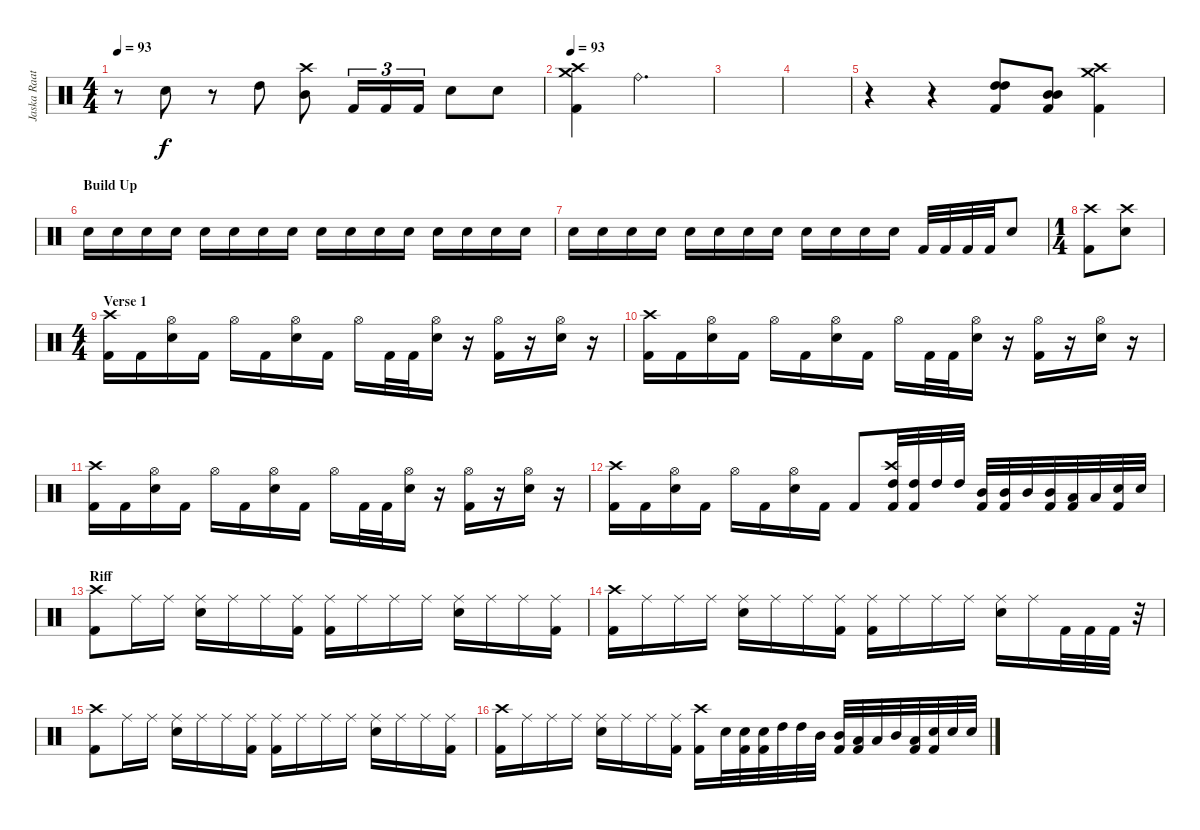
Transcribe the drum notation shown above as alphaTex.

\track ("Jaska Raatikainen" "Jaska Raat") {instrument percussion}
\staff {score}
\articulation defaults
\ts (4 4)
\tempo 93
\clef neutral
\ks c
r.8{dy f} "Snare (hit) 2".8 r.8 "High Tom (hit)".8 ("Crash high (hit)" "Mid Tom (hit)").8 "Kick (hit) 2".16{tu (3 2)} "Kick (hit) 2".16{tu (3 2)} "Kick (hit) 2".16{tu (3 2)} "Snare (hit) 2".8 "Snare (hit) 2".8 |
\tempo 93
("Crash high (hit)" "Crash medium (hit)" "Kick (hit) 2").4 "Ride (bell)".2{d} |
|
|
r.4 r.4 ("High Tom (hit)" "High Tom (hit)" "Kick (hit) 2").8 ("Mid Tom (hit)" "Mid Tom (hit)" "Kick (hit) 2").8 ("Crash high (hit)" "Crash medium (hit)" "Kick (hit) 2").4 |
\section ("" "Build Up")
"Snare (hit) 2".16{volume 0} "Snare (hit) 2".16 "Snare (hit) 2".16{volume 2} "Snare (hit) 2".16 "Snare (hit) 2".16{volume 4} "Snare (hit) 2".16 "Snare (hit) 2".16{volume 6} "Snare (hit) 2".16 "Snare (hit) 2".16{volume 8} "Snare (hit) 2".16 "Snare (hit) 2".16{volume 10} "Snare (hit) 2".16 "Snare (hit) 2".16{volume 11} "Snare (hit) 2".16 "Snare (hit) 2".16{volume 13} "Snare (hit) 2".16 |
"Snare (hit) 2".16{volume 14} "Snare (hit) 2".16 "Snare (hit) 2".16{volume 16} "Snare (hit) 2".16 "Snare (hit) 2".16 "Snare (hit) 2".16 "Snare (hit) 2".16 "Snare (hit) 2".16 "Snare (hit) 2".16 "Snare (hit) 2".16 "Snare (hit) 2".16 "Snare (hit) 2".16 "Kick (hit) 2".32 "Kick (hit) 2".32 "Kick (hit) 2".32 "Kick (hit) 2".32 "Snare (hit) 2".8 |
\ts (1 4)
("Crash high (hit)" "Kick (hit) 2").8 ("Crash high (hit)" "Snare (hit) 2").8 |
\ts (4 4)
\section ("" "Verse 1")
("Crash high (hit)" "Kick (hit) 2").16 "Kick (hit) 2".16 ("Hi-Hat (open)" "Snare (hit) 2").16 "Kick (hit) 2".16 "Hi-Hat (open)".16 "Kick (hit) 2".16 ("Hi-Hat (open)" "Snare (hit) 2").16 "Kick (hit) 2".16 "Hi-Hat (open)".16 "Kick (hit) 2".32 "Kick (hit) 2".32 ("Hi-Hat (open)" "Snare (hit) 2").16 r.16 ("Hi-Hat (open)" "Kick (hit) 2").16 r.16 ("Hi-Hat (open)" "Snare (hit) 2").16 r.16 |
("Crash high (hit)" "Kick (hit) 2").16 "Kick (hit) 2".16 ("Hi-Hat (open)" "Snare (hit) 2").16 "Kick (hit) 2".16 "Hi-Hat (open)".16 "Kick (hit) 2".16 ("Hi-Hat (open)" "Snare (hit) 2").16 "Kick (hit) 2".16 "Hi-Hat (open)".16 "Kick (hit) 2".32 "Kick (hit) 2".32 ("Hi-Hat (open)" "Snare (hit) 2").16 r.16 ("Hi-Hat (open)" "Kick (hit) 2").16 r.16 ("Hi-Hat (open)" "Snare (hit) 2").16 r.16 |
("Crash high (hit)" "Kick (hit) 2").16 "Kick (hit) 2".16 ("Hi-Hat (open)" "Snare (hit) 2").16 "Kick (hit) 2".16 "Hi-Hat (open)".16 "Kick (hit) 2".16 ("Hi-Hat (open)" "Snare (hit) 2").16 "Kick (hit) 2".16 "Hi-Hat (open)".16 "Kick (hit) 2".32 "Kick (hit) 2".32 ("Hi-Hat (open)" "Snare (hit) 2").16 r.16 ("Hi-Hat (open)" "Kick (hit) 2").16 r.16 ("Hi-Hat (open)" "Snare (hit) 2").16 r.16 |
("Crash high (hit)" "Kick (hit) 2").16 "Kick (hit) 2".16 ("Hi-Hat (open)" "Snare (hit) 2").16 "Kick (hit) 2".16 "Hi-Hat (open)".16 "Kick (hit) 2".16 ("Hi-Hat (open)" "Snare (hit) 2").16 "Kick (hit) 2".16 "Kick (hit) 2".8 ("Crash high (hit)" "High Tom (hit)" "Kick (hit) 2").32 ("High Tom (hit)" "Kick (hit) 2").32 "High Tom (hit)".32 "High Tom (hit)".32 ("Mid Tom (hit)" "Kick (hit) 2").32 ("Mid Tom (hit)" "Kick (hit) 2").32 "Mid Tom (hit)".32 ("Mid Tom (hit)" "Kick (hit) 2").32 ("Low Tom (hit)" "Kick (hit) 2").32 "Low Tom (hit)".32 ("Snare (hit) 2" "Kick (hit) 2").32 "Snare (hit) 2".32 |
\section ("" "Riff")
("Crash high (hit)" "Kick (hit) 2").8 "Ride (middle)".16 "Ride (middle)".16 ("Ride (middle)" "Snare (hit) 2").16 "Ride (middle)".16 "Ride (middle)".16 ("Ride (middle)" "Kick (hit) 2").16 ("Ride (middle)" "Kick (hit) 2").16 "Ride (middle)".16 "Ride (middle)".16 "Ride (middle)".16 ("Ride (middle)" "Snare (hit) 2").16 "Ride (middle)".16 "Ride (middle)".16 ("Ride (middle)" "Kick (hit) 2").16 |
("Crash high (hit)" "Kick (hit) 2").16 "Ride (middle)".16 "Ride (middle)".16 "Ride (middle)".16 ("Ride (middle)" "Snare (hit) 2").16 "Ride (middle)".16 "Ride (middle)".16 ("Ride (middle)" "Kick (hit) 2").16 ("Ride (middle)" "Kick (hit) 2").16 "Ride (middle)".16 "Ride (middle)".16 "Ride (middle)".16 ("Ride (middle)" "Snare (hit) 2").16 "Ride (middle)".16 "Kick (hit) 2".32 "Kick (hit) 2".32 "Kick (hit) 2".32 r.32 |
("Crash high (hit)" "Kick (hit) 2").8 "Ride (middle)".16 "Ride (middle)".16 ("Ride (middle)" "Snare (hit) 2").16 "Ride (middle)".16 "Ride (middle)".16 ("Ride (middle)" "Kick (hit) 2").16 ("Ride (middle)" "Kick (hit) 2").16 "Ride (middle)".16 "Ride (middle)".16 "Ride (middle)".16 ("Ride (middle)" "Snare (hit) 2").16 "Ride (middle)".16 "Ride (middle)".16 ("Ride (middle)" "Kick (hit) 2").16 |
("Crash high (hit)" "Kick (hit) 2").16 "Ride (middle)".16 "Ride (middle)".16 "Ride (middle)".16 ("Ride (middle)" "Snare (hit) 2").16 "Ride (middle)".16 "Ride (middle)".16 ("Ride (middle)" "Kick (hit) 2").16 ("Crash high (hit)" "Kick (hit) 2").16 "Snare (hit) 2".32 ("Snare (hit) 2" "Kick (hit) 2").32 ("Snare (hit) 2" "Kick (hit) 2").32 "High Tom (hit)".32 "High Tom (hit)".32 "Mid Tom (hit)".32 ("Mid Tom (hit)" "Kick (hit) 2").32 ("Low Tom (hit)" "Kick (hit) 2").32 "Low Tom (hit)".32 "Mid Tom (hit)".32 ("Low Tom (hit)" "Kick (hit) 2").32 ("Snare (hit) 2" "Kick (hit) 2").32 "Snare (hit) 2".32 "Snare (hit) 2".32
